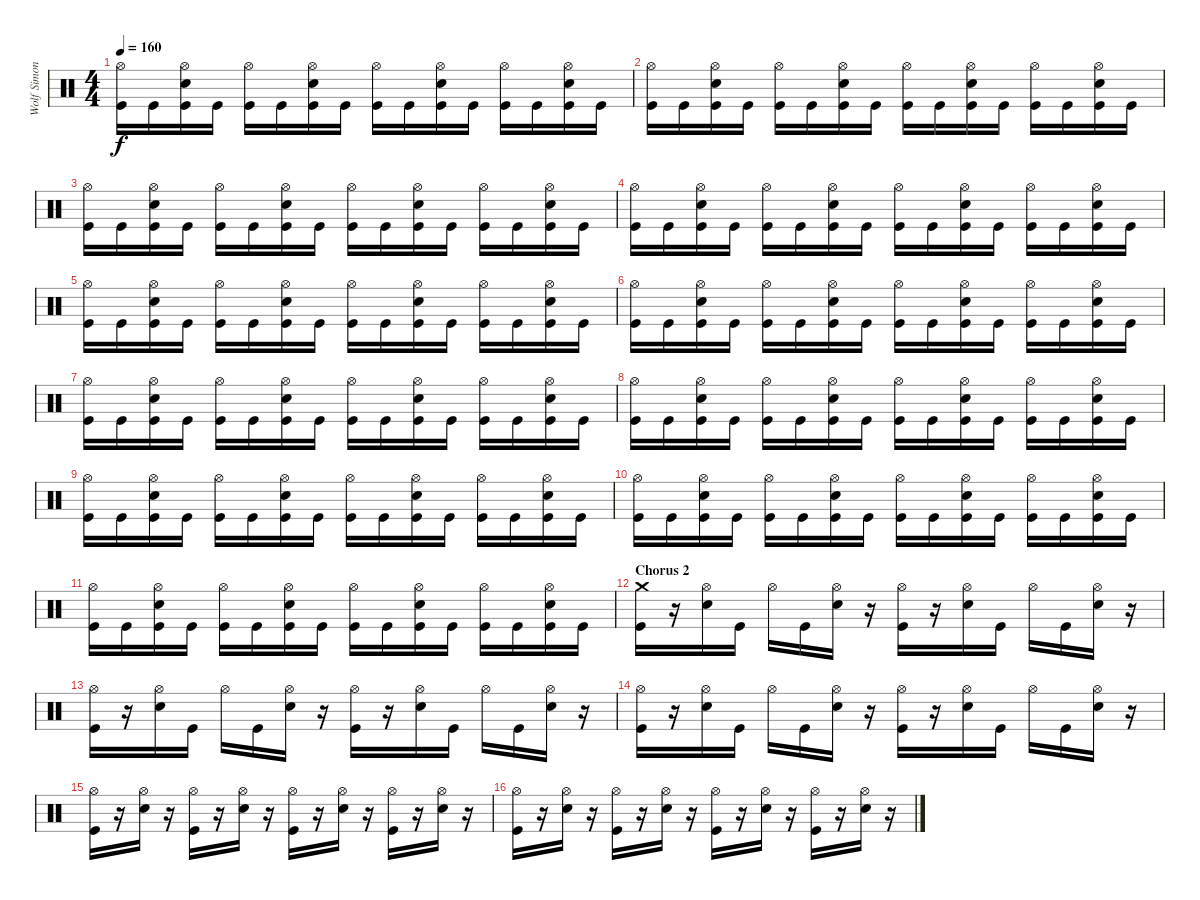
\track ("Wolf Simons" "Wolf Simon") {instrument percussion}
\staff {score}
\articulation defaults
\ts (4 4)
\tempo 160
\clef neutral
\ks c
("Hi-Hat (open)" "Kick (hit)").16{dy f} "Kick (hit)".16 ("Hi-Hat (open)" "Electric Snare (hit)" "Kick (hit)").16 "Kick (hit)".16 ("Hi-Hat (open)" "Kick (hit)").16 "Kick (hit)".16 ("Hi-Hat (open)" "Electric Snare (hit)" "Kick (hit)").16 "Kick (hit)".16 ("Hi-Hat (open)" "Kick (hit)").16 "Kick (hit)".16 ("Hi-Hat (open)" "Electric Snare (hit)" "Kick (hit)").16 "Kick (hit)".16 ("Hi-Hat (open)" "Kick (hit)").16 "Kick (hit)".16 ("Hi-Hat (open)" "Electric Snare (hit)" "Kick (hit)").16 "Kick (hit)".16 |
("Hi-Hat (open)" "Kick (hit)").16 "Kick (hit)".16 ("Hi-Hat (open)" "Electric Snare (hit)" "Kick (hit)").16 "Kick (hit)".16 ("Hi-Hat (open)" "Kick (hit)").16 "Kick (hit)".16 ("Hi-Hat (open)" "Electric Snare (hit)" "Kick (hit)").16 "Kick (hit)".16 ("Hi-Hat (open)" "Kick (hit)").16 "Kick (hit)".16 ("Hi-Hat (open)" "Electric Snare (hit)" "Kick (hit)").16 "Kick (hit)".16 ("Hi-Hat (open)" "Kick (hit)").16 "Kick (hit)".16 ("Hi-Hat (open)" "Electric Snare (hit)" "Kick (hit)").16 "Kick (hit)".16 |
("Hi-Hat (open)" "Kick (hit)").16 "Kick (hit)".16 ("Hi-Hat (open)" "Electric Snare (hit)" "Kick (hit)").16 "Kick (hit)".16 ("Hi-Hat (open)" "Kick (hit)").16 "Kick (hit)".16 ("Hi-Hat (open)" "Electric Snare (hit)" "Kick (hit)").16 "Kick (hit)".16 ("Hi-Hat (open)" "Kick (hit)").16 "Kick (hit)".16 ("Hi-Hat (open)" "Electric Snare (hit)" "Kick (hit)").16 "Kick (hit)".16 ("Hi-Hat (open)" "Kick (hit)").16 "Kick (hit)".16 ("Hi-Hat (open)" "Electric Snare (hit)" "Kick (hit)").16 "Kick (hit)".16 |
("Hi-Hat (open)" "Kick (hit)").16 "Kick (hit)".16 ("Hi-Hat (open)" "Electric Snare (hit)" "Kick (hit)").16 "Kick (hit)".16 ("Hi-Hat (open)" "Kick (hit)").16 "Kick (hit)".16 ("Hi-Hat (open)" "Electric Snare (hit)" "Kick (hit)").16 "Kick (hit)".16 ("Hi-Hat (open)" "Kick (hit)").16 "Kick (hit)".16 ("Hi-Hat (open)" "Electric Snare (hit)" "Kick (hit)").16 "Kick (hit)".16 ("Hi-Hat (open)" "Kick (hit)").16 "Kick (hit)".16 ("Hi-Hat (open)" "Electric Snare (hit)" "Kick (hit)").16 "Kick (hit)".16 |
("Hi-Hat (open)" "Kick (hit)").16 "Kick (hit)".16 ("Hi-Hat (open)" "Electric Snare (hit)" "Kick (hit)").16 "Kick (hit)".16 ("Hi-Hat (open)" "Kick (hit)").16 "Kick (hit)".16 ("Hi-Hat (open)" "Electric Snare (hit)" "Kick (hit)").16 "Kick (hit)".16 ("Hi-Hat (open)" "Kick (hit)").16 "Kick (hit)".16 ("Hi-Hat (open)" "Electric Snare (hit)" "Kick (hit)").16 "Kick (hit)".16 ("Hi-Hat (open)" "Kick (hit)").16 "Kick (hit)".16 ("Hi-Hat (open)" "Electric Snare (hit)" "Kick (hit)").16 "Kick (hit)".16 |
("Hi-Hat (open)" "Kick (hit)").16 "Kick (hit)".16 ("Hi-Hat (open)" "Electric Snare (hit)" "Kick (hit)").16 "Kick (hit)".16 ("Hi-Hat (open)" "Kick (hit)").16 "Kick (hit)".16 ("Hi-Hat (open)" "Electric Snare (hit)" "Kick (hit)").16 "Kick (hit)".16 ("Hi-Hat (open)" "Kick (hit)").16 "Kick (hit)".16 ("Hi-Hat (open)" "Electric Snare (hit)" "Kick (hit)").16 "Kick (hit)".16 ("Hi-Hat (open)" "Kick (hit)").16 "Kick (hit)".16 ("Hi-Hat (open)" "Electric Snare (hit)" "Kick (hit)").16 "Kick (hit)".16 |
("Hi-Hat (open)" "Kick (hit)").16 "Kick (hit)".16 ("Hi-Hat (open)" "Electric Snare (hit)" "Kick (hit)").16 "Kick (hit)".16 ("Hi-Hat (open)" "Kick (hit)").16 "Kick (hit)".16 ("Hi-Hat (open)" "Electric Snare (hit)" "Kick (hit)").16 "Kick (hit)".16 ("Hi-Hat (open)" "Kick (hit)").16 "Kick (hit)".16 ("Hi-Hat (open)" "Electric Snare (hit)" "Kick (hit)").16 "Kick (hit)".16 ("Hi-Hat (open)" "Kick (hit)").16 "Kick (hit)".16 ("Hi-Hat (open)" "Electric Snare (hit)" "Kick (hit)").16 "Kick (hit)".16 |
("Hi-Hat (open)" "Kick (hit)").16 "Kick (hit)".16 ("Hi-Hat (open)" "Electric Snare (hit)" "Kick (hit)").16 "Kick (hit)".16 ("Hi-Hat (open)" "Kick (hit)").16 "Kick (hit)".16 ("Hi-Hat (open)" "Electric Snare (hit)" "Kick (hit)").16 "Kick (hit)".16 ("Hi-Hat (open)" "Kick (hit)").16 "Kick (hit)".16 ("Hi-Hat (open)" "Electric Snare (hit)" "Kick (hit)").16 "Kick (hit)".16 ("Hi-Hat (open)" "Kick (hit)").16 "Kick (hit)".16 ("Hi-Hat (open)" "Electric Snare (hit)" "Kick (hit)").16 "Kick (hit)".16 |
("Hi-Hat (open)" "Kick (hit)").16 "Kick (hit)".16 ("Hi-Hat (open)" "Electric Snare (hit)" "Kick (hit)").16 "Kick (hit)".16 ("Hi-Hat (open)" "Kick (hit)").16 "Kick (hit)".16 ("Hi-Hat (open)" "Electric Snare (hit)" "Kick (hit)").16 "Kick (hit)".16 ("Hi-Hat (open)" "Kick (hit)").16 "Kick (hit)".16 ("Hi-Hat (open)" "Electric Snare (hit)" "Kick (hit)").16 "Kick (hit)".16 ("Hi-Hat (open)" "Kick (hit)").16 "Kick (hit)".16 ("Hi-Hat (open)" "Electric Snare (hit)" "Kick (hit)").16 "Kick (hit)".16 |
("Hi-Hat (open)" "Kick (hit)").16 "Kick (hit)".16 ("Hi-Hat (open)" "Electric Snare (hit)" "Kick (hit)").16 "Kick (hit)".16 ("Hi-Hat (open)" "Kick (hit)").16 "Kick (hit)".16 ("Hi-Hat (open)" "Electric Snare (hit)" "Kick (hit)").16 "Kick (hit)".16 ("Hi-Hat (open)" "Kick (hit)").16 "Kick (hit)".16 ("Hi-Hat (open)" "Electric Snare (hit)" "Kick (hit)").16 "Kick (hit)".16 ("Hi-Hat (open)" "Kick (hit)").16 "Kick (hit)".16 ("Hi-Hat (open)" "Electric Snare (hit)" "Kick (hit)").16 "Kick (hit)".16 |
("Hi-Hat (open)" "Kick (hit)").16 "Kick (hit)".16 ("Hi-Hat (open)" "Electric Snare (hit)" "Kick (hit)").16 "Kick (hit)".16 ("Hi-Hat (open)" "Kick (hit)").16 "Kick (hit)".16 ("Hi-Hat (open)" "Electric Snare (hit)" "Kick (hit)").16 "Kick (hit)".16 ("Hi-Hat (open)" "Kick (hit)").16 "Kick (hit)".16 ("Hi-Hat (open)" "Electric Snare (hit)" "Kick (hit)").16 "Kick (hit)".16 ("Hi-Hat (open)" "Kick (hit)").16 "Kick (hit)".16 ("Hi-Hat (open)" "Electric Snare (hit)" "Kick (hit)").16 "Kick (hit)".16 |
\section ("" "Chorus 2")
("Crash medium (hit)" "Kick (hit)").16 r.16 ("Hi-Hat (open)" "Electric Snare (hit)").16 "Kick (hit)".16 "Hi-Hat (open)".16 "Kick (hit)".16 ("Hi-Hat (open)" "Electric Snare (hit)").16 r.16 ("Hi-Hat (open)" "Kick (hit)").16 r.16 ("Hi-Hat (open)" "Electric Snare (hit)").16 "Kick (hit)".16 "Hi-Hat (open)".16 "Kick (hit)".16 ("Hi-Hat (open)" "Electric Snare (hit)").16 r.16 |
("Hi-Hat (open)" "Kick (hit)").16 r.16 ("Hi-Hat (open)" "Electric Snare (hit)").16 "Kick (hit)".16 "Hi-Hat (open)".16 "Kick (hit)".16 ("Hi-Hat (open)" "Electric Snare (hit)").16 r.16 ("Hi-Hat (open)" "Kick (hit)").16 r.16 ("Hi-Hat (open)" "Electric Snare (hit)").16 "Kick (hit)".16 "Hi-Hat (open)".16 "Kick (hit)".16 ("Hi-Hat (open)" "Electric Snare (hit)").16 r.16 |
("Hi-Hat (open)" "Kick (hit)").16 r.16 ("Hi-Hat (open)" "Electric Snare (hit)").16 "Kick (hit)".16 "Hi-Hat (open)".16 "Kick (hit)".16 ("Hi-Hat (open)" "Electric Snare (hit)").16 r.16 ("Hi-Hat (open)" "Kick (hit)").16 r.16 ("Hi-Hat (open)" "Electric Snare (hit)").16 "Kick (hit)".16 "Hi-Hat (open)".16 "Kick (hit)".16 ("Hi-Hat (open)" "Electric Snare (hit)").16 r.16 |
("Hi-Hat (open)" "Kick (hit)").16 r.16 ("Hi-Hat (open)" "Electric Snare (hit)").16 r.16 ("Hi-Hat (open)" "Kick (hit)").16 r.16 ("Hi-Hat (open)" "Electric Snare (hit)").16 r.16 ("Hi-Hat (open)" "Kick (hit)").16 r.16 ("Hi-Hat (open)" "Electric Snare (hit)").16 r.16 ("Hi-Hat (open)" "Kick (hit)").16 r.16 ("Hi-Hat (open)" "Electric Snare (hit)").16 r.16 |
("Hi-Hat (open)" "Kick (hit)").16 r.16 ("Hi-Hat (open)" "Electric Snare (hit)").16 r.16 ("Hi-Hat (open)" "Kick (hit)").16 r.16 ("Hi-Hat (open)" "Electric Snare (hit)").16 r.16 ("Hi-Hat (open)" "Kick (hit)").16 r.16 ("Hi-Hat (open)" "Electric Snare (hit)").16 r.16 ("Hi-Hat (open)" "Kick (hit)").16 r.16 ("Hi-Hat (open)" "Electric Snare (hit)").16 r.16
